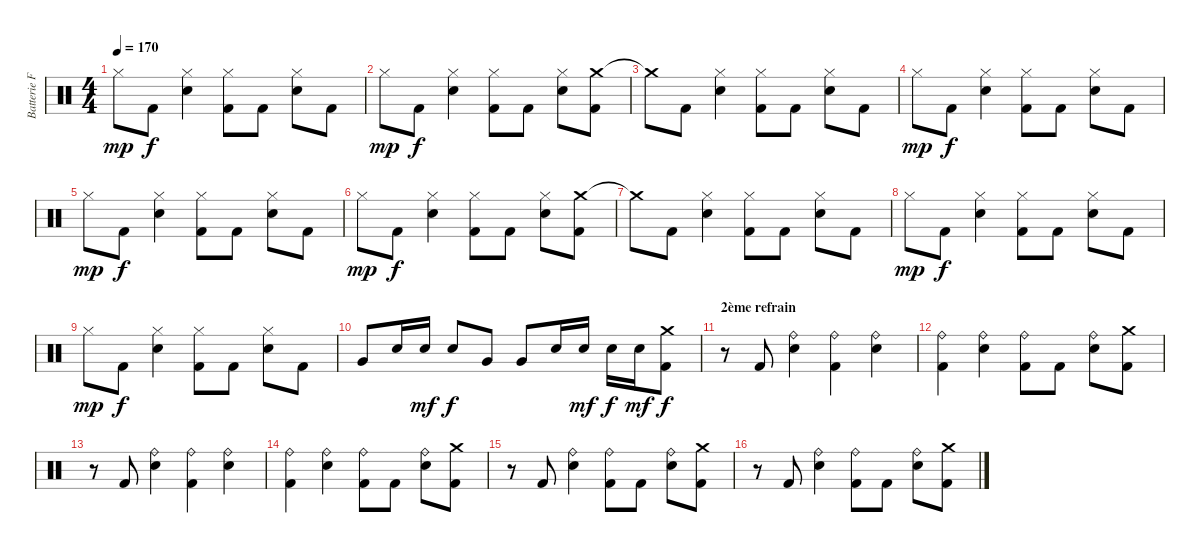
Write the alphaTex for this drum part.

\track ("Batterie Franck" "Batterie F") {instrument percussion}
\staff {score}
\articulation defaults
\ts (4 4)
\tempo 170
\clef neutral
\ks c "Hi-Hat (closed)".8{dy mp} "Kick (hit) 2".8{dy f}
("Hi-Hat (closed)" "Snare (hit) 2").4 ("Hi-Hat (closed)" "Kick (hit) 2").8 "Kick (hit) 2".8 ("Hi-Hat (closed)" "Snare (hit) 2").8 "Kick (hit) 2".8 |
"Hi-Hat (closed)".8{dy mp} "Kick (hit) 2".8{dy f} ("Hi-Hat (closed)" "Snare (hit) 2").4 ("Hi-Hat (closed)" "Kick (hit) 2").8 "Kick (hit) 2".8 ("Hi-Hat (closed)" "Snare (hit) 2").8 ("Crash medium (hit)" "Kick (hit) 2").8 |
"Crash medium (hit)"{t}.8 "Kick (hit) 2".8 ("Hi-Hat (closed)" "Snare (hit) 2").4 ("Hi-Hat (closed)" "Kick (hit) 2").8 "Kick (hit) 2".8 ("Hi-Hat (closed)" "Snare (hit) 2").8 "Kick (hit) 2".8 |
"Hi-Hat (closed)".8{dy mp} "Kick (hit) 2".8{dy f} ("Hi-Hat (closed)" "Snare (hit) 2").4 ("Hi-Hat (closed)" "Kick (hit) 2").8 "Kick (hit) 2".8 ("Hi-Hat (closed)" "Snare (hit) 2").8 "Kick (hit) 2".8 |
"Hi-Hat (closed)".8{dy mp} "Kick (hit) 2".8{dy f} ("Hi-Hat (closed)" "Snare (hit) 2").4 ("Hi-Hat (closed)" "Kick (hit) 2").8 "Kick (hit) 2".8 ("Hi-Hat (closed)" "Snare (hit) 2").8 "Kick (hit) 2".8 |
"Hi-Hat (closed)".8{dy mp} "Kick (hit) 2".8{dy f} ("Hi-Hat (closed)" "Snare (hit) 2").4 ("Hi-Hat (closed)" "Kick (hit) 2").8 "Kick (hit) 2".8 ("Hi-Hat (closed)" "Snare (hit) 2").8 ("Crash medium (hit)" "Kick (hit) 2").8 |
"Crash medium (hit)"{t}.8 "Kick (hit) 2".8 ("Hi-Hat (closed)" "Snare (hit) 2").4 ("Hi-Hat (closed)" "Kick (hit) 2").8 "Kick (hit) 2".8 ("Hi-Hat (closed)" "Snare (hit) 2").8 "Kick (hit) 2".8 |
"Hi-Hat (closed)".8{dy mp} "Kick (hit) 2".8{dy f} ("Hi-Hat (closed)" "Snare (hit) 2").4 ("Hi-Hat (closed)" "Kick (hit) 2").8 "Kick (hit) 2".8 ("Hi-Hat (closed)" "Snare (hit) 2").8 "Kick (hit) 2".8 |
"Hi-Hat (closed)".8{dy mp} "Kick (hit) 2".8{dy f} ("Hi-Hat (closed)" "Snare (hit) 2").4 ("Hi-Hat (closed)" "Kick (hit) 2").8 "Kick (hit) 2".8 ("Hi-Hat (closed)" "Snare (hit) 2").8 "Kick (hit) 2".8 |
"Very Low Tom (hit)".8 "Snare (hit) 2".16 "Snare (hit) 2".16{dy mf} "Snare (hit) 2".8{dy f} "Very Low Tom (hit)".8 "Very Low Tom (hit)".8 "Snare (hit) 2".16 "Snare (hit) 2".16{dy mf} "Snare (hit) 2".16{dy f} "Snare (hit) 2".16{dy mf} ("Crash medium (hit)" "Kick (hit) 2").8{dy f} |
\section ("" "2ème refrain")
r.8 "Kick (hit) 2".8 ("Ride (bell)" "Snare (hit) 2").4 ("Ride (bell)" "Kick (hit) 2").4 ("Ride (bell)" "Snare (hit) 2").4 |
("Ride (bell)" "Kick (hit) 2").4 ("Ride (bell)" "Snare (hit) 2").4 ("Ride (bell)" "Kick (hit) 2").8 "Kick (hit) 2".8 ("Ride (bell)" "Snare (hit) 2").8 ("Crash medium (hit)" "Kick (hit) 2").8 |
r.8 "Kick (hit) 2".8 ("Ride (bell)" "Snare (hit) 2").4 ("Ride (bell)" "Kick (hit) 2").4 ("Ride (bell)" "Snare (hit) 2").4 |
("Ride (bell)" "Kick (hit) 2").4 ("Ride (bell)" "Snare (hit) 2").4 ("Ride (bell)" "Kick (hit) 2").8 "Kick (hit) 2".8 ("Ride (bell)" "Snare (hit) 2").8 ("Crash medium (hit)" "Kick (hit) 2").8 |
r.8 "Kick (hit) 2".8 ("Ride (bell)" "Snare (hit) 2").4 ("Ride (bell)" "Kick (hit) 2").8 "Kick (hit) 2".8 ("Ride (bell)" "Snare (hit) 2").8 ("Crash medium (hit)" "Kick (hit) 2").8 |
r.8 "Kick (hit) 2".8 ("Ride (bell)" "Snare (hit) 2").4 ("Ride (bell)" "Kick (hit) 2").8 "Kick (hit) 2".8 ("Ride (bell)" "Snare (hit) 2").8 ("Crash medium (hit)" "Kick (hit) 2").8
